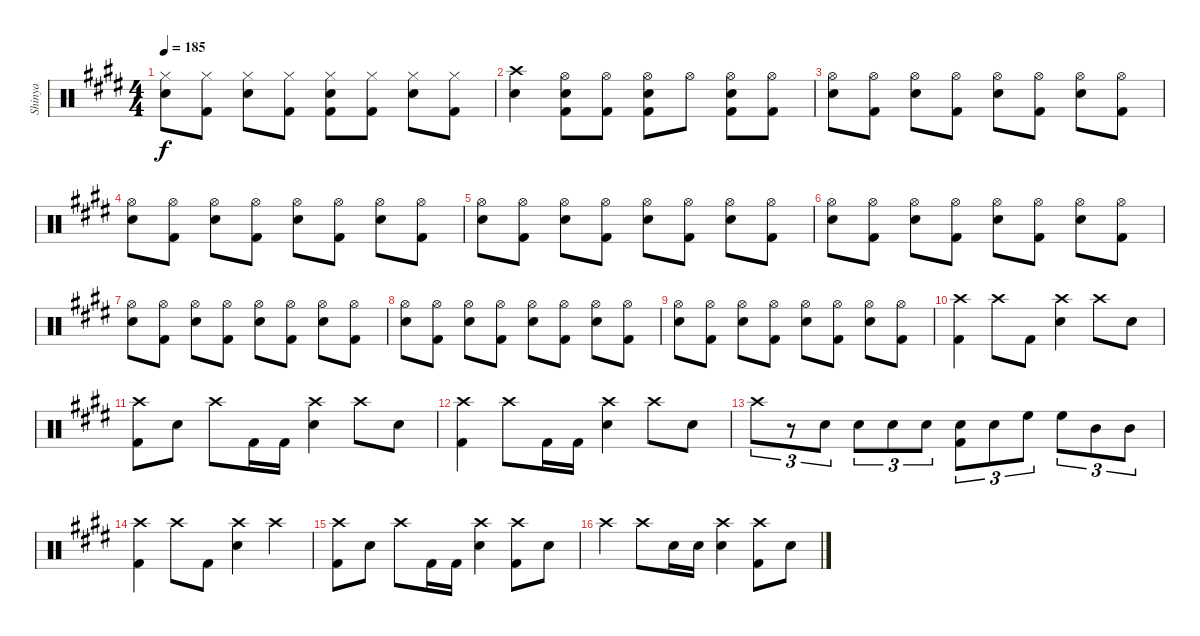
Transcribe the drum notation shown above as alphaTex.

\track ("Shinya" "Shinya") {instrument percussion}
\staff {score}
\articulation defaults
\ts (4 4)
\tempo 185
\clef neutral
\ks e
("Hi-Hat (closed)" "Snare (hit) 2").8{dy f} ("Hi-Hat (closed)" "Kick (hit) 2").8 ("Hi-Hat (closed)" "Snare (hit) 2").8 ("Hi-Hat (closed)" "Kick (hit) 2").8 ("Hi-Hat (closed)" "Snare (hit) 2" "Kick (hit) 2").8 ("Hi-Hat (closed)" "Kick (hit) 2").8 ("Hi-Hat (closed)" "Snare (hit) 2").8 ("Hi-Hat (closed)" "Kick (hit) 2").8 |
("Crash high (hit)" "Snare (hit) 2").4 ("Hi-Hat (open)" "Snare (hit) 2" "Kick (hit) 2").8 ("Hi-Hat (open)" "Kick (hit) 2").8 ("Hi-Hat (open)" "Snare (hit) 2" "Kick (hit) 2").8 "Hi-Hat (open)".8 ("Hi-Hat (open)" "Snare (hit) 2" "Kick (hit) 2").8 ("Hi-Hat (open)" "Kick (hit) 2").8 |
("Hi-Hat (open)" "Snare (hit) 2").8 ("Hi-Hat (open)" "Kick (hit) 2").8 ("Hi-Hat (open)" "Snare (hit) 2").8 ("Hi-Hat (open)" "Kick (hit) 2").8 ("Hi-Hat (open)" "Snare (hit) 2").8 ("Hi-Hat (open)" "Kick (hit) 2").8 ("Hi-Hat (open)" "Snare (hit) 2").8 ("Hi-Hat (open)" "Kick (hit) 2").8 |
("Hi-Hat (open)" "Snare (hit) 2").8 ("Hi-Hat (open)" "Kick (hit) 2").8 ("Hi-Hat (open)" "Snare (hit) 2").8 ("Hi-Hat (open)" "Kick (hit) 2").8 ("Hi-Hat (open)" "Snare (hit) 2").8 ("Hi-Hat (open)" "Kick (hit) 2").8 ("Hi-Hat (open)" "Snare (hit) 2").8 ("Hi-Hat (open)" "Kick (hit) 2").8 |
("Hi-Hat (open)" "Snare (hit) 2").8 ("Hi-Hat (open)" "Kick (hit) 2").8 ("Hi-Hat (open)" "Snare (hit) 2").8 ("Hi-Hat (open)" "Kick (hit) 2").8 ("Hi-Hat (open)" "Snare (hit) 2").8 ("Hi-Hat (open)" "Kick (hit) 2").8 ("Hi-Hat (open)" "Snare (hit) 2").8 ("Hi-Hat (open)" "Kick (hit) 2").8 |
("Hi-Hat (open)" "Snare (hit) 2").8 ("Hi-Hat (open)" "Kick (hit) 2").8 ("Hi-Hat (open)" "Snare (hit) 2").8 ("Hi-Hat (open)" "Kick (hit) 2").8 ("Hi-Hat (open)" "Snare (hit) 2").8 ("Hi-Hat (open)" "Kick (hit) 2").8 ("Hi-Hat (open)" "Snare (hit) 2").8 ("Hi-Hat (open)" "Kick (hit) 2").8 |
("Hi-Hat (open)" "Snare (hit) 2").8 ("Hi-Hat (open)" "Kick (hit) 2").8 ("Hi-Hat (open)" "Snare (hit) 2").8 ("Hi-Hat (open)" "Kick (hit) 2").8 ("Hi-Hat (open)" "Snare (hit) 2").8 ("Hi-Hat (open)" "Kick (hit) 2").8 ("Hi-Hat (open)" "Snare (hit) 2").8 ("Hi-Hat (open)" "Kick (hit) 2").8 |
("Hi-Hat (open)" "Snare (hit) 2").8 ("Hi-Hat (open)" "Kick (hit) 2").8 ("Hi-Hat (open)" "Snare (hit) 2").8 ("Hi-Hat (open)" "Kick (hit) 2").8 ("Hi-Hat (open)" "Snare (hit) 2").8 ("Hi-Hat (open)" "Kick (hit) 2").8 ("Hi-Hat (open)" "Snare (hit) 2").8 ("Hi-Hat (open)" "Kick (hit) 2").8 |
("Hi-Hat (open)" "Snare (hit) 2").8 ("Hi-Hat (open)" "Kick (hit) 2").8 ("Hi-Hat (open)" "Snare (hit) 2").8 ("Hi-Hat (open)" "Kick (hit) 2").8 ("Hi-Hat (open)" "Snare (hit) 2").8 ("Hi-Hat (open)" "Kick (hit) 2").8 ("Hi-Hat (open)" "Snare (hit) 2").8 ("Hi-Hat (open)" "Kick (hit) 2").8 |
("Crash high (hit)" "Kick (hit) 2").4{volume 16} "Crash high (hit)".8 "Kick (hit) 2".8 ("Crash high (hit)" "Snare (hit) 2").4 "Crash high (hit)".8 "Snare (hit) 2".8 |
("Crash high (hit)" "Kick (hit) 2").8 "Snare (hit) 2".8 "Crash high (hit)".8 "Kick (hit) 2".16 "Kick (hit) 2".16 ("Crash high (hit)" "Snare (hit) 2").4 "Crash high (hit)".8 "Snare (hit) 2".8 |
("Crash high (hit)" "Kick (hit) 2").4 "Crash high (hit)".8 "Kick (hit) 2".16 "Kick (hit) 2".16 ("Crash high (hit)" "Snare (hit) 2").4 "Crash high (hit)".8 "Snare (hit) 2".8 |
"Crash high (hit)".8{tu (3 2)} r.8{tu (3 2)} "Snare (hit) 2".8{tu (3 2)} "Snare (hit) 2".8{tu (3 2)} "Snare (hit) 2".8{tu (3 2)} "Snare (hit) 2".8{tu (3 2)} ("Snare (hit) 2" "Kick (hit) 2").8{tu (3 2)} "Snare (hit) 2".8{tu (3 2)} "High Floor Tom (hit)".8{tu (3 2)} "High Floor Tom (hit)".8{tu (3 2)} "Mid Tom (hit)".8{tu (3 2)} "Mid Tom (hit)".8{tu (3 2)} |
("Crash high (hit)" "Kick (hit) 2").4 "Crash high (hit)".8 "Kick (hit) 2".8 ("Crash high (hit)" "Snare (hit) 2").4 "Crash high (hit)".4 |
("Crash high (hit)" "Kick (hit) 2").8 "Snare (hit) 2".8 "Crash high (hit)".8 "Kick (hit) 2".16 "Kick (hit) 2".16 ("Crash high (hit)" "Snare (hit) 2").4 ("Crash high (hit)" "Kick (hit) 2").8 "Snare (hit) 2".8 |
"Crash high (hit)".4 "Crash high (hit)".8 "Snare (hit) 2".16 "Snare (hit) 2".16 ("Crash high (hit)" "Snare (hit) 2").4 ("Crash high (hit)" "Kick (hit) 2").8 "Snare (hit) 2".8
